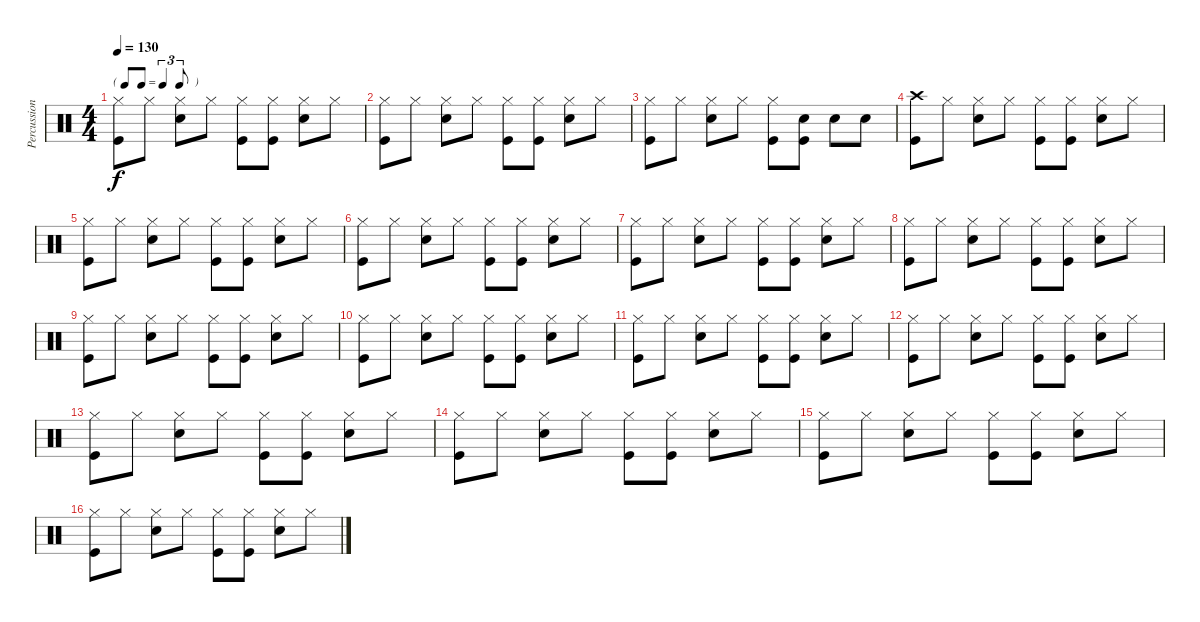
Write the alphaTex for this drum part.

\track ("Percussion" "Percussion") {instrument percussion}
\staff {score}
\articulation defaults
\ts (4 4)
\tf triplet8th
\tempo 130
\clef neutral
\ks c
("Hi-Hat (closed)" "Kick (hit)").8{dy f} "Hi-Hat (closed)".8 ("Hi-Hat (closed)" "Snare (hit) 2").8 "Hi-Hat (closed)".8 ("Hi-Hat (closed)" "Kick (hit)").8 ("Hi-Hat (closed)" "Kick (hit)").8 ("Hi-Hat (closed)" "Snare (hit) 2").8 "Hi-Hat (closed)".8 |
("Hi-Hat (closed)" "Kick (hit)").8 "Hi-Hat (closed)".8 ("Hi-Hat (closed)" "Snare (hit) 2").8 "Hi-Hat (closed)".8 ("Hi-Hat (closed)" "Kick (hit)").8 ("Hi-Hat (closed)" "Kick (hit)").8 ("Hi-Hat (closed)" "Snare (hit) 2").8 "Hi-Hat (closed)".8 |
("Hi-Hat (closed)" "Kick (hit)").8 "Hi-Hat (closed)".8 ("Hi-Hat (closed)" "Snare (hit) 2").8 "Hi-Hat (closed)".8 ("Hi-Hat (closed)" "Kick (hit)").8 ("Snare (hit) 2" "Kick (hit)").8 "Snare (hit) 2".8 "Snare (hit) 2".8 |
("Crash high (hit)" "Kick (hit)").8 "Hi-Hat (closed)".8 ("Hi-Hat (closed)" "Snare (hit) 2").8 "Hi-Hat (closed)".8 ("Hi-Hat (closed)" "Kick (hit)").8 ("Hi-Hat (closed)" "Kick (hit)").8 ("Hi-Hat (closed)" "Snare (hit) 2").8 "Hi-Hat (closed)".8 |
("Hi-Hat (closed)" "Kick (hit)").8 "Hi-Hat (closed)".8 ("Hi-Hat (closed)" "Snare (hit) 2").8 "Hi-Hat (closed)".8 ("Hi-Hat (closed)" "Kick (hit)").8 ("Hi-Hat (closed)" "Kick (hit)").8 ("Hi-Hat (closed)" "Snare (hit) 2").8 "Hi-Hat (closed)".8 |
("Hi-Hat (closed)" "Kick (hit)").8 "Hi-Hat (closed)".8 ("Hi-Hat (closed)" "Snare (hit) 2").8 "Hi-Hat (closed)".8 ("Hi-Hat (closed)" "Kick (hit)").8 ("Hi-Hat (closed)" "Kick (hit)").8 ("Hi-Hat (closed)" "Snare (hit) 2").8 "Hi-Hat (closed)".8 |
("Hi-Hat (closed)" "Kick (hit)").8 "Hi-Hat (closed)".8 ("Hi-Hat (closed)" "Snare (hit) 2").8 "Hi-Hat (closed)".8 ("Hi-Hat (closed)" "Kick (hit)").8 ("Hi-Hat (closed)" "Kick (hit)").8 ("Hi-Hat (closed)" "Snare (hit) 2").8 "Hi-Hat (closed)".8 |
("Hi-Hat (closed)" "Kick (hit)").8 "Hi-Hat (closed)".8 ("Hi-Hat (closed)" "Snare (hit) 2").8 "Hi-Hat (closed)".8 ("Hi-Hat (closed)" "Kick (hit)").8 ("Hi-Hat (closed)" "Kick (hit)").8 ("Hi-Hat (closed)" "Snare (hit) 2").8 "Hi-Hat (closed)".8 |
("Hi-Hat (closed)" "Kick (hit)").8 "Hi-Hat (closed)".8 ("Hi-Hat (closed)" "Snare (hit) 2").8 "Hi-Hat (closed)".8 ("Hi-Hat (closed)" "Kick (hit)").8 ("Hi-Hat (closed)" "Kick (hit)").8 ("Hi-Hat (closed)" "Snare (hit) 2").8 "Hi-Hat (closed)".8 |
("Hi-Hat (closed)" "Kick (hit)").8 "Hi-Hat (closed)".8 ("Hi-Hat (closed)" "Snare (hit) 2").8 "Hi-Hat (closed)".8 ("Hi-Hat (closed)" "Kick (hit)").8 ("Hi-Hat (closed)" "Kick (hit)").8 ("Hi-Hat (closed)" "Snare (hit) 2").8 "Hi-Hat (closed)".8 |
("Hi-Hat (closed)" "Kick (hit)").8 "Hi-Hat (closed)".8 ("Hi-Hat (closed)" "Snare (hit) 2").8 "Hi-Hat (closed)".8 ("Hi-Hat (closed)" "Kick (hit)").8 ("Hi-Hat (closed)" "Kick (hit)").8 ("Hi-Hat (closed)" "Snare (hit) 2").8 "Hi-Hat (closed)".8 |
("Hi-Hat (closed)" "Kick (hit)").8 "Hi-Hat (closed)".8 ("Hi-Hat (closed)" "Snare (hit) 2").8 "Hi-Hat (closed)".8 ("Hi-Hat (closed)" "Kick (hit)").8 ("Hi-Hat (closed)" "Kick (hit)").8 ("Hi-Hat (closed)" "Snare (hit) 2").8 "Hi-Hat (closed)".8 |
("Hi-Hat (closed)" "Kick (hit)").8 "Hi-Hat (closed)".8 ("Hi-Hat (closed)" "Snare (hit) 2").8 "Hi-Hat (closed)".8 ("Hi-Hat (closed)" "Kick (hit)").8 ("Hi-Hat (closed)" "Kick (hit)").8 ("Hi-Hat (closed)" "Snare (hit) 2").8 "Hi-Hat (closed)".8 |
("Hi-Hat (closed)" "Kick (hit)").8 "Hi-Hat (closed)".8 ("Hi-Hat (closed)" "Snare (hit) 2").8 "Hi-Hat (closed)".8 ("Hi-Hat (closed)" "Kick (hit)").8 ("Hi-Hat (closed)" "Kick (hit)").8 ("Hi-Hat (closed)" "Snare (hit) 2").8 "Hi-Hat (closed)".8 |
("Hi-Hat (closed)" "Kick (hit)").8 "Hi-Hat (closed)".8 ("Hi-Hat (closed)" "Snare (hit) 2").8 "Hi-Hat (closed)".8 ("Hi-Hat (closed)" "Kick (hit)").8 ("Hi-Hat (closed)" "Kick (hit)").8 ("Hi-Hat (closed)" "Snare (hit) 2").8 "Hi-Hat (closed)".8 |
("Hi-Hat (closed)" "Kick (hit)").8 "Hi-Hat (closed)".8 ("Hi-Hat (closed)" "Snare (hit) 2").8 "Hi-Hat (closed)".8 ("Hi-Hat (closed)" "Kick (hit)").8 ("Hi-Hat (closed)" "Kick (hit)").8 ("Hi-Hat (closed)" "Snare (hit) 2").8 "Hi-Hat (closed)".8
